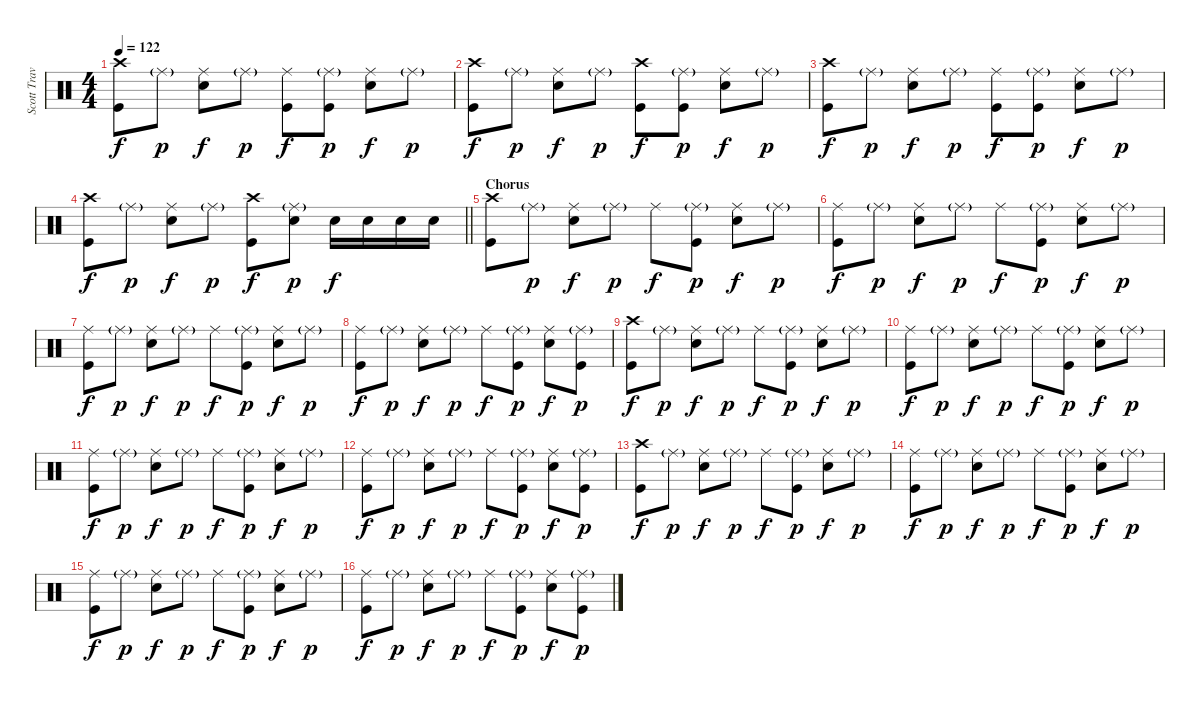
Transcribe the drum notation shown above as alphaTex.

\track ("Scott Travis" "Scott Trav") {instrument percussion}
\staff {score}
\articulation defaults
\ts (4 4)
\tempo 122
\clef neutral
\ks c
("Crash high (hit)" "Kick (hit)").8{dy f} "Ride (middle)"{g}.8{dy p} ("Ride (middle)" "Snare (hit) 2").8{dy f} "Ride (middle)"{g}.8{dy p} ("Ride (middle)" "Kick (hit)").8{dy f} ("Ride (middle)"{g} "Kick (hit)").8{dy p} ("Ride (middle)" "Snare (hit) 2").8{dy f} "Ride (middle)"{g}.8{dy p} |
("Crash high (hit)" "Kick (hit)").8{dy f} "Ride (middle)"{g}.8{dy p} ("Ride (middle)" "Snare (hit) 2").8{dy f} "Ride (middle)"{g}.8{dy p} ("Crash high (hit)" "Kick (hit)").8{dy f} ("Ride (middle)"{g} "Kick (hit)").8{dy p} ("Ride (middle)" "Snare (hit) 2").8{dy f} "Ride (middle)"{g}.8{dy p} |
("Crash high (hit)" "Kick (hit)").8{dy f} "Ride (middle)"{g}.8{dy p} ("Ride (middle)" "Snare (hit) 2").8{dy f} "Ride (middle)"{g}.8{dy p} ("Ride (middle)" "Kick (hit)").8{dy f} ("Ride (middle)"{g} "Kick (hit)").8{dy p} ("Ride (middle)" "Snare (hit) 2").8{dy f} "Ride (middle)"{g}.8{dy p} |
\barLineRight lightlight
("Crash high (hit)" "Kick (hit)").8{dy f} "Ride (middle)"{g}.8{dy p} ("Ride (middle)" "Snare (hit) 2").8{dy f} "Ride (middle)"{g}.8{dy p} ("Crash high (hit)" "Kick (hit)").8{dy f} ("Ride (middle)"{g} "Snare (hit) 2").8{dy p} "Snare (hit) 2".16{dy f} "Snare (hit) 2".16 "Snare (hit) 2".16 "Snare (hit) 2".16 |
\section ("" "Chorus")
("Crash high (hit)" "Kick (hit)").8 "Ride (middle)"{g}.8{dy p} ("Ride (middle)" "Snare (hit) 2").8{dy f} "Ride (middle)"{g}.8{dy p} "Ride (middle)".8{dy f} ("Ride (middle)"{g} "Kick (hit)").8{dy p} ("Ride (middle)" "Snare (hit) 2").8{dy f} "Ride (middle)"{g}.8{dy p} |
("Ride (middle)" "Kick (hit)").8{dy f} "Ride (middle)"{g}.8{dy p} ("Ride (middle)" "Snare (hit) 2").8{dy f} "Ride (middle)"{g}.8{dy p} "Ride (middle)".8{dy f} ("Ride (middle)"{g} "Kick (hit)").8{dy p} ("Ride (middle)" "Snare (hit) 2").8{dy f} "Ride (middle)"{g}.8{dy p} |
("Ride (middle)" "Kick (hit)").8{dy f} "Ride (middle)"{g}.8{dy p} ("Ride (middle)" "Snare (hit) 2").8{dy f} "Ride (middle)"{g}.8{dy p} "Ride (middle)".8{dy f} ("Ride (middle)"{g} "Kick (hit)").8{dy p} ("Ride (middle)" "Snare (hit) 2").8{dy f} "Ride (middle)"{g}.8{dy p} |
("Ride (middle)" "Kick (hit)").8{dy f} "Ride (middle)"{g}.8{dy p} ("Ride (middle)" "Snare (hit) 2").8{dy f} "Ride (middle)"{g}.8{dy p} "Ride (middle)".8{dy f} ("Ride (middle)"{g} "Kick (hit)").8{dy p} ("Ride (middle)" "Snare (hit) 2").8{dy f} ("Ride (middle)"{g} "Kick (hit)").8{dy p} |
("Crash high (hit)" "Kick (hit)").8{dy f} "Ride (middle)"{g}.8{dy p} ("Ride (middle)" "Snare (hit) 2").8{dy f} "Ride (middle)"{g}.8{dy p} "Ride (middle)".8{dy f} ("Ride (middle)"{g} "Kick (hit)").8{dy p} ("Ride (middle)" "Snare (hit) 2").8{dy f} "Ride (middle)"{g}.8{dy p} |
("Ride (middle)" "Kick (hit)").8{dy f} "Ride (middle)"{g}.8{dy p} ("Ride (middle)" "Snare (hit) 2").8{dy f} "Ride (middle)"{g}.8{dy p} "Ride (middle)".8{dy f} ("Ride (middle)"{g} "Kick (hit)").8{dy p} ("Ride (middle)" "Snare (hit) 2").8{dy f} "Ride (middle)"{g}.8{dy p} |
("Ride (middle)" "Kick (hit)").8{dy f} "Ride (middle)"{g}.8{dy p} ("Ride (middle)" "Snare (hit) 2").8{dy f} "Ride (middle)"{g}.8{dy p} "Ride (middle)".8{dy f} ("Ride (middle)"{g} "Kick (hit)").8{dy p} ("Ride (middle)" "Snare (hit) 2").8{dy f} "Ride (middle)"{g}.8{dy p} |
("Ride (middle)" "Kick (hit)").8{dy f} "Ride (middle)"{g}.8{dy p} ("Ride (middle)" "Snare (hit) 2").8{dy f} "Ride (middle)"{g}.8{dy p} "Ride (middle)".8{dy f} ("Ride (middle)"{g} "Kick (hit)").8{dy p} ("Ride (middle)" "Snare (hit) 2").8{dy f} ("Ride (middle)"{g} "Kick (hit)").8{dy p} |
("Crash high (hit)" "Kick (hit)").8{dy f} "Ride (middle)"{g}.8{dy p} ("Ride (middle)" "Snare (hit) 2").8{dy f} "Ride (middle)"{g}.8{dy p} "Ride (middle)".8{dy f} ("Ride (middle)"{g} "Kick (hit)").8{dy p} ("Ride (middle)" "Snare (hit) 2").8{dy f} "Ride (middle)"{g}.8{dy p} |
("Ride (middle)" "Kick (hit)").8{dy f} "Ride (middle)"{g}.8{dy p} ("Ride (middle)" "Snare (hit) 2").8{dy f} "Ride (middle)"{g}.8{dy p} "Ride (middle)".8{dy f} ("Ride (middle)"{g} "Kick (hit)").8{dy p} ("Ride (middle)" "Snare (hit) 2").8{dy f} "Ride (middle)"{g}.8{dy p} |
("Ride (middle)" "Kick (hit)").8{dy f} "Ride (middle)"{g}.8{dy p} ("Ride (middle)" "Snare (hit) 2").8{dy f} "Ride (middle)"{g}.8{dy p} "Ride (middle)".8{dy f} ("Ride (middle)"{g} "Kick (hit)").8{dy p} ("Ride (middle)" "Snare (hit) 2").8{dy f} "Ride (middle)"{g}.8{dy p} |
("Ride (middle)" "Kick (hit)").8{dy f} "Ride (middle)"{g}.8{dy p} ("Ride (middle)" "Snare (hit) 2").8{dy f} "Ride (middle)"{g}.8{dy p} "Ride (middle)".8{dy f} ("Ride (middle)"{g} "Kick (hit)").8{dy p} ("Ride (middle)" "Snare (hit) 2").8{dy f} ("Ride (middle)"{g} "Kick (hit)").8{dy p}
